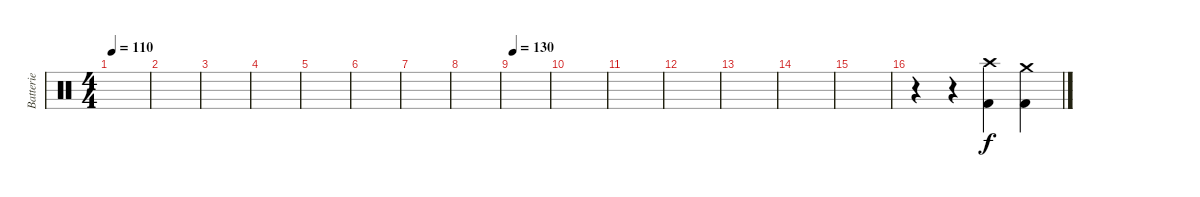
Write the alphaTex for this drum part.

\track ("Batterie" "Batterie") {instrument percussion}
\staff {score}
\articulation defaults
\ts (4 4)
\tempo 110
\clef neutral
\ks c
|
|
|
|
|
|
|
|
\tempo 130
|
|
|
|
|
|
|
r.4 r.4 ("Crash high (hit)" "Kick (hit) 2").4 ("Crash medium (hit)" "Kick (hit) 2").4
